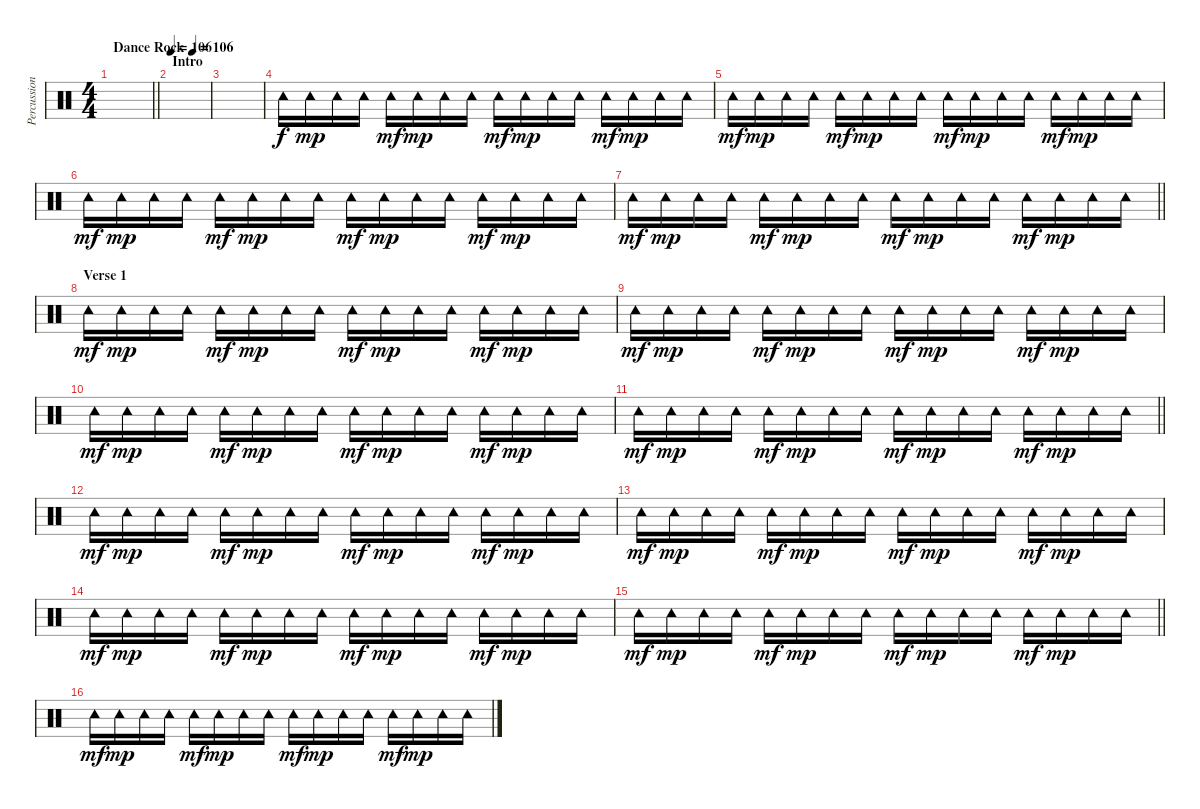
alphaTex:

\track ("Percussion (Tre Cool)" "Percussion") {instrument percussion}
\staff {score}
\articulation defaults
\ts (4 4)
\tempo (106 "Dance Rock")
\clef neutral
\barLineRight lightlight
\ks c
|
\section ("" "Intro")
\tempo 106
|
|
"Tambourine (hit)".16 "Tambourine (hit)".16{dy mp} "Tambourine (hit)".16 "Tambourine (hit)".16 "Tambourine (hit)".16{dy mf} "Tambourine (hit)".16{dy mp} "Tambourine (hit)".16 "Tambourine (hit)".16 "Tambourine (hit)".16{dy mf} "Tambourine (hit)".16{dy mp} "Tambourine (hit)".16 "Tambourine (hit)".16 "Tambourine (hit)".16{dy mf} "Tambourine (hit)".16{dy mp} "Tambourine (hit)".16 "Tambourine (hit)".16 |
"Tambourine (hit)".16{dy mf} "Tambourine (hit)".16{dy mp} "Tambourine (hit)".16 "Tambourine (hit)".16 "Tambourine (hit)".16{dy mf} "Tambourine (hit)".16{dy mp} "Tambourine (hit)".16 "Tambourine (hit)".16 "Tambourine (hit)".16{dy mf} "Tambourine (hit)".16{dy mp} "Tambourine (hit)".16 "Tambourine (hit)".16 "Tambourine (hit)".16{dy mf} "Tambourine (hit)".16{dy mp} "Tambourine (hit)".16 "Tambourine (hit)".16 |
"Tambourine (hit)".16{dy mf} "Tambourine (hit)".16{dy mp} "Tambourine (hit)".16 "Tambourine (hit)".16 "Tambourine (hit)".16{dy mf} "Tambourine (hit)".16{dy mp} "Tambourine (hit)".16 "Tambourine (hit)".16 "Tambourine (hit)".16{dy mf} "Tambourine (hit)".16{dy mp} "Tambourine (hit)".16 "Tambourine (hit)".16 "Tambourine (hit)".16{dy mf} "Tambourine (hit)".16{dy mp} "Tambourine (hit)".16 "Tambourine (hit)".16 |
\barLineRight lightlight "Tambourine (hit)".16{dy mf} "Tambourine (hit)".16{dy mp} "Tambourine (hit)".16 "Tambourine (hit)".16 "Tambourine (hit)".16{dy mf} "Tambourine (hit)".16{dy mp} "Tambourine (hit)".16 "Tambourine (hit)".16 "Tambourine (hit)".16{dy mf} "Tambourine (hit)".16{dy mp} "Tambourine (hit)".16 "Tambourine (hit)".16 "Tambourine (hit)".16{dy mf} "Tambourine (hit)".16{dy mp} "Tambourine (hit)".16 "Tambourine (hit)".16
|
\section ("" "Verse 1")
"Tambourine (hit)".16{dy mf} "Tambourine (hit)".16{dy mp} "Tambourine (hit)".16 "Tambourine (hit)".16 "Tambourine (hit)".16{dy mf} "Tambourine (hit)".16{dy mp} "Tambourine (hit)".16 "Tambourine (hit)".16 "Tambourine (hit)".16{dy mf} "Tambourine (hit)".16{dy mp} "Tambourine (hit)".16 "Tambourine (hit)".16 "Tambourine (hit)".16{dy mf} "Tambourine (hit)".16{dy mp} "Tambourine (hit)".16 "Tambourine (hit)".16 |
"Tambourine (hit)".16{dy mf} "Tambourine (hit)".16{dy mp} "Tambourine (hit)".16 "Tambourine (hit)".16 "Tambourine (hit)".16{dy mf} "Tambourine (hit)".16{dy mp} "Tambourine (hit)".16 "Tambourine (hit)".16 "Tambourine (hit)".16{dy mf} "Tambourine (hit)".16{dy mp} "Tambourine (hit)".16 "Tambourine (hit)".16 "Tambourine (hit)".16{dy mf} "Tambourine (hit)".16{dy mp} "Tambourine (hit)".16 "Tambourine (hit)".16 |
"Tambourine (hit)".16{dy mf} "Tambourine (hit)".16{dy mp} "Tambourine (hit)".16 "Tambourine (hit)".16 "Tambourine (hit)".16{dy mf} "Tambourine (hit)".16{dy mp} "Tambourine (hit)".16 "Tambourine (hit)".16 "Tambourine (hit)".16{dy mf} "Tambourine (hit)".16{dy mp} "Tambourine (hit)".16 "Tambourine (hit)".16 "Tambourine (hit)".16{dy mf} "Tambourine (hit)".16{dy mp} "Tambourine (hit)".16 "Tambourine (hit)".16 |
\barLineRight lightlight "Tambourine (hit)".16{dy mf} "Tambourine (hit)".16{dy mp} "Tambourine (hit)".16 "Tambourine (hit)".16 "Tambourine (hit)".16{dy mf} "Tambourine (hit)".16{dy mp} "Tambourine (hit)".16 "Tambourine (hit)".16 "Tambourine (hit)".16{dy mf} "Tambourine (hit)".16{dy mp} "Tambourine (hit)".16 "Tambourine (hit)".16 "Tambourine (hit)".16{dy mf} "Tambourine (hit)".16{dy mp} "Tambourine (hit)".16 "Tambourine (hit)".16
|
"Tambourine (hit)".16{dy mf} "Tambourine (hit)".16{dy mp} "Tambourine (hit)".16 "Tambourine (hit)".16 "Tambourine (hit)".16{dy mf} "Tambourine (hit)".16{dy mp} "Tambourine (hit)".16 "Tambourine (hit)".16 "Tambourine (hit)".16{dy mf} "Tambourine (hit)".16{dy mp} "Tambourine (hit)".16 "Tambourine (hit)".16 "Tambourine (hit)".16{dy mf} "Tambourine (hit)".16{dy mp} "Tambourine (hit)".16 "Tambourine (hit)".16 |
"Tambourine (hit)".16{dy mf} "Tambourine (hit)".16{dy mp} "Tambourine (hit)".16 "Tambourine (hit)".16 "Tambourine (hit)".16{dy mf} "Tambourine (hit)".16{dy mp} "Tambourine (hit)".16 "Tambourine (hit)".16 "Tambourine (hit)".16{dy mf} "Tambourine (hit)".16{dy mp} "Tambourine (hit)".16 "Tambourine (hit)".16 "Tambourine (hit)".16{dy mf} "Tambourine (hit)".16{dy mp} "Tambourine (hit)".16 "Tambourine (hit)".16 |
"Tambourine (hit)".16{dy mf} "Tambourine (hit)".16{dy mp} "Tambourine (hit)".16 "Tambourine (hit)".16 "Tambourine (hit)".16{dy mf} "Tambourine (hit)".16{dy mp} "Tambourine (hit)".16 "Tambourine (hit)".16 "Tambourine (hit)".16{dy mf} "Tambourine (hit)".16{dy mp} "Tambourine (hit)".16 "Tambourine (hit)".16 "Tambourine (hit)".16{dy mf} "Tambourine (hit)".16{dy mp} "Tambourine (hit)".16 "Tambourine (hit)".16 |
\barLineRight lightlight "Tambourine (hit)".16{dy mf} "Tambourine (hit)".16{dy mp} "Tambourine (hit)".16 "Tambourine (hit)".16 "Tambourine (hit)".16{dy mf} "Tambourine (hit)".16{dy mp} "Tambourine (hit)".16 "Tambourine (hit)".16 "Tambourine (hit)".16{dy mf} "Tambourine (hit)".16{dy mp} "Tambourine (hit)".16 "Tambourine (hit)".16 "Tambourine (hit)".16{dy mf} "Tambourine (hit)".16{dy mp} "Tambourine (hit)".16 "Tambourine (hit)".16
|
"Tambourine (hit)".16{dy mf} "Tambourine (hit)".16{dy mp} "Tambourine (hit)".16 "Tambourine (hit)".16 "Tambourine (hit)".16{dy mf} "Tambourine (hit)".16{dy mp} "Tambourine (hit)".16 "Tambourine (hit)".16 "Tambourine (hit)".16{dy mf} "Tambourine (hit)".16{dy mp} "Tambourine (hit)".16 "Tambourine (hit)".16 "Tambourine (hit)".16{dy mf} "Tambourine (hit)".16{dy mp} "Tambourine (hit)".16 "Tambourine (hit)".16
